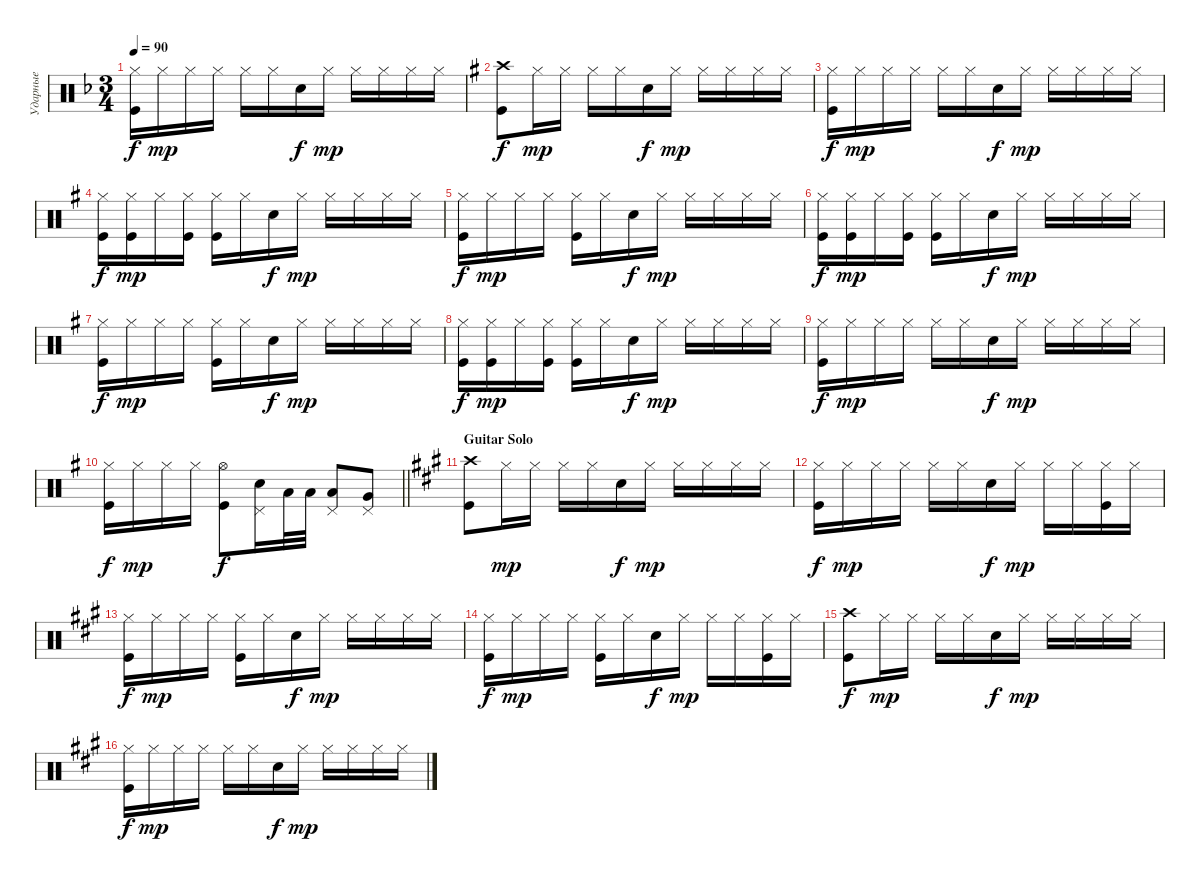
\track ("Ударные" "Ударные") {instrument percussion}
\staff {score}
\articulation defaults
\ts (3 4)
\tempo 90
\clef neutral
\ks dminor
("Hi-Hat (closed)" "Kick (hit)").16{dy f} "Hi-Hat (closed)".16{dy mp} "Hi-Hat (closed)".16 "Hi-Hat (closed)".16 "Hi-Hat (closed)".16 "Hi-Hat (closed)".16 "Snare (hit) 2".16{dy f} "Hi-Hat (closed)".16{dy mp} "Hi-Hat (closed)".16 "Hi-Hat (closed)".16 "Hi-Hat (closed)".16 "Hi-Hat (closed)".16 |
\ks eminor
("Crash high (hit)" "Kick (hit)").8{dy f} "Hi-Hat (closed)".16{dy mp} "Hi-Hat (closed)".16 "Hi-Hat (closed)".16 "Hi-Hat (closed)".16 "Snare (hit) 2".16{dy f} "Hi-Hat (closed)".16{dy mp} "Hi-Hat (closed)".16 "Hi-Hat (closed)".16 "Hi-Hat (closed)".16 "Hi-Hat (closed)".16 |
("Hi-Hat (closed)" "Kick (hit)").16{dy f} "Hi-Hat (closed)".16{dy mp} "Hi-Hat (closed)".16 "Hi-Hat (closed)".16 "Hi-Hat (closed)".16 "Hi-Hat (closed)".16 "Snare (hit) 2".16{dy f} "Hi-Hat (closed)".16{dy mp} "Hi-Hat (closed)".16 "Hi-Hat (closed)".16 "Hi-Hat (closed)".16 "Hi-Hat (closed)".16 |
("Hi-Hat (closed)" "Kick (hit)").16{dy f} ("Hi-Hat (closed)" "Kick (hit)").16{dy mp} "Hi-Hat (closed)".16 ("Hi-Hat (closed)" "Kick (hit)").16 ("Hi-Hat (closed)" "Kick (hit)").16 "Hi-Hat (closed)".16 "Snare (hit) 2".16{dy f} "Hi-Hat (closed)".16{dy mp} "Hi-Hat (closed)".16 "Hi-Hat (closed)".16 "Hi-Hat (closed)".16 "Hi-Hat (closed)".16 |
("Hi-Hat (closed)" "Kick (hit)").16{dy f} "Hi-Hat (closed)".16{dy mp} "Hi-Hat (closed)".16 "Hi-Hat (closed)".16 ("Hi-Hat (closed)" "Kick (hit)").16 "Hi-Hat (closed)".16 "Snare (hit) 2".16{dy f} "Hi-Hat (closed)".16{dy mp} "Hi-Hat (closed)".16 "Hi-Hat (closed)".16 "Hi-Hat (closed)".16 "Hi-Hat (closed)".16 |
("Hi-Hat (closed)" "Kick (hit)").16{dy f} ("Hi-Hat (closed)" "Kick (hit)").16{dy mp} "Hi-Hat (closed)".16 ("Hi-Hat (closed)" "Kick (hit)").16 ("Hi-Hat (closed)" "Kick (hit)").16 "Hi-Hat (closed)".16 "Snare (hit) 2".16{dy f} "Hi-Hat (closed)".16{dy mp} "Hi-Hat (closed)".16 "Hi-Hat (closed)".16 "Hi-Hat (closed)".16 "Hi-Hat (closed)".16 |
("Hi-Hat (closed)" "Kick (hit)").16{dy f} "Hi-Hat (closed)".16{dy mp} "Hi-Hat (closed)".16 "Hi-Hat (closed)".16 ("Hi-Hat (closed)" "Kick (hit)").16 "Hi-Hat (closed)".16 "Snare (hit) 2".16{dy f} "Hi-Hat (closed)".16{dy mp} "Hi-Hat (closed)".16 "Hi-Hat (closed)".16 "Hi-Hat (closed)".16 "Hi-Hat (closed)".16 |
("Hi-Hat (closed)" "Kick (hit)").16{dy f} ("Hi-Hat (closed)" "Kick (hit)").16{dy mp} "Hi-Hat (closed)".16 ("Hi-Hat (closed)" "Kick (hit)").16 ("Hi-Hat (closed)" "Kick (hit)").16 "Hi-Hat (closed)".16 "Snare (hit) 2".16{dy f} "Hi-Hat (closed)".16{dy mp} "Hi-Hat (closed)".16 "Hi-Hat (closed)".16 "Hi-Hat (closed)".16 "Hi-Hat (closed)".16 |
("Hi-Hat (closed)" "Kick (hit)").16{dy f} "Hi-Hat (closed)".16{dy mp} "Hi-Hat (closed)".16 "Hi-Hat (closed)".16 "Hi-Hat (closed)".16 "Hi-Hat (closed)".16 "Snare (hit) 2".16{dy f} "Hi-Hat (closed)".16{dy mp} "Hi-Hat (closed)".16 "Hi-Hat (closed)".16 "Hi-Hat (closed)".16 "Hi-Hat (closed)".16 |
\barLineRight lightlight
("Hi-Hat (closed)" "Kick (hit)").16{dy f} "Hi-Hat (closed)".16{dy mp} "Hi-Hat (closed)".16 "Hi-Hat (closed)".16 ("Hi-Hat (open)" "Kick (hit)").8{dy f} ("Snare (hit) 2" "Pedal Hi-Hat (hit)").16 "Low Tom (hit)".32 "Low Tom (hit)".32 ("Pedal Hi-Hat (hit)" "Low Tom (hit)").8{bd 60} ("Pedal Hi-Hat (hit)" "Very Low Tom (hit)").8{bd 60} |
\section ("" "Guitar Solo")
\ks f#minor
("Crash high (hit)" "Kick (hit)").8 "Hi-Hat (closed)".16{dy mp} "Hi-Hat (closed)".16 "Hi-Hat (closed)".16 "Hi-Hat (closed)".16 "Snare (hit) 2".16{dy f} "Hi-Hat (closed)".16{dy mp} "Hi-Hat (closed)".16 "Hi-Hat (closed)".16 "Hi-Hat (closed)".16 "Hi-Hat (closed)".16 |
("Hi-Hat (closed)" "Kick (hit)").16{dy f} "Hi-Hat (closed)".16{dy mp} "Hi-Hat (closed)".16 "Hi-Hat (closed)".16 "Hi-Hat (closed)".16 "Hi-Hat (closed)".16 "Snare (hit) 2".16{dy f} "Hi-Hat (closed)".16{dy mp} "Hi-Hat (closed)".16 "Hi-Hat (closed)".16 ("Hi-Hat (closed)" "Kick (hit)").16 "Hi-Hat (closed)".16 |
("Hi-Hat (closed)" "Kick (hit)").16{dy f} "Hi-Hat (closed)".16{dy mp} "Hi-Hat (closed)".16 "Hi-Hat (closed)".16 ("Hi-Hat (closed)" "Kick (hit)").16 "Hi-Hat (closed)".16 "Snare (hit) 2".16{dy f} "Hi-Hat (closed)".16{dy mp} "Hi-Hat (closed)".16 "Hi-Hat (closed)".16 "Hi-Hat (closed)".16 "Hi-Hat (closed)".16 |
("Hi-Hat (closed)" "Kick (hit)").16{dy f} "Hi-Hat (closed)".16{dy mp} "Hi-Hat (closed)".16 "Hi-Hat (closed)".16 ("Hi-Hat (closed)" "Kick (hit)").16 "Hi-Hat (closed)".16 "Snare (hit) 2".16{dy f} "Hi-Hat (closed)".16{dy mp} "Hi-Hat (closed)".16 "Hi-Hat (closed)".16 ("Hi-Hat (closed)" "Kick (hit)").16 "Hi-Hat (closed)".16 |
("Crash high (hit)" "Kick (hit)").8{dy f} "Hi-Hat (closed)".16{dy mp} "Hi-Hat (closed)".16 "Hi-Hat (closed)".16 "Hi-Hat (closed)".16 "Snare (hit) 2".16{dy f} "Hi-Hat (closed)".16{dy mp} "Hi-Hat (closed)".16 "Hi-Hat (closed)".16 "Hi-Hat (closed)".16 "Hi-Hat (closed)".16 |
("Hi-Hat (closed)" "Kick (hit)").16{dy f} "Hi-Hat (closed)".16{dy mp} "Hi-Hat (closed)".16 "Hi-Hat (closed)".16 "Hi-Hat (closed)".16 "Hi-Hat (closed)".16 "Snare (hit) 2".16{dy f} "Hi-Hat (closed)".16{dy mp} "Hi-Hat (closed)".16 "Hi-Hat (closed)".16 "Hi-Hat (closed)".16 "Hi-Hat (closed)".16
